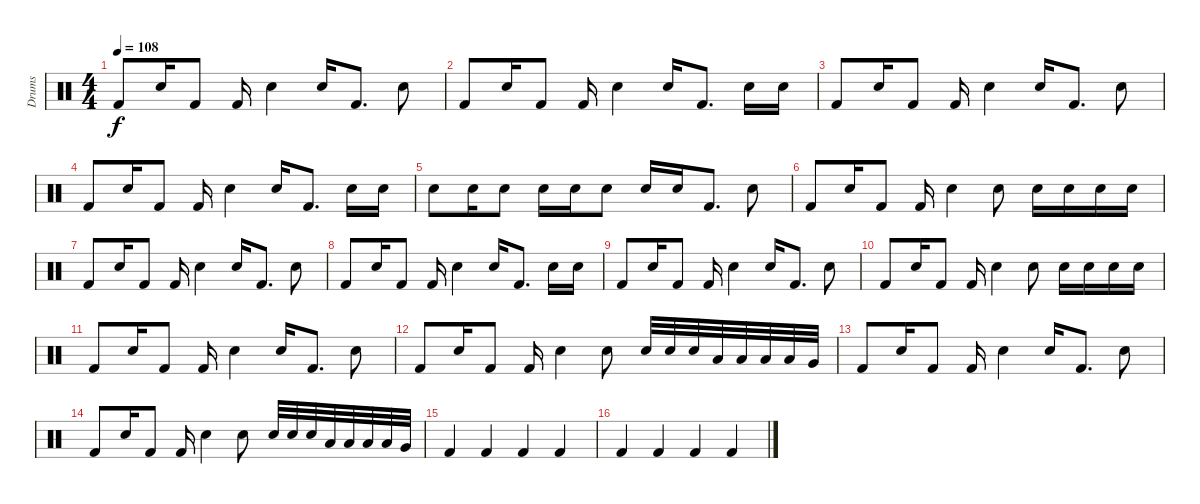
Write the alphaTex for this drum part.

\track ("Drums" "Drums") {instrument percussion}
\staff {score}
\articulation defaults
\ts (4 4)
\tempo 108
\clef neutral
\ks c "Kick (hit) 2".8{dy f} "Electric Snare (hit)".16 "Kick (hit) 2".8 "Kick (hit) 2".16 "Electric Snare (hit)".4 "Electric Snare (hit)".16 "Kick (hit) 2".8{d} "Electric Snare (hit)".8
|
"Kick (hit) 2".8 "Electric Snare (hit)".16 "Kick (hit) 2".8 "Kick (hit) 2".16 "Electric Snare (hit)".4 "Electric Snare (hit)".16 "Kick (hit) 2".8{d} "Electric Snare (hit)".16 "Electric Snare (hit)".16 |
"Kick (hit) 2".8 "Electric Snare (hit)".16 "Kick (hit) 2".8 "Kick (hit) 2".16 "Electric Snare (hit)".4 "Electric Snare (hit)".16 "Kick (hit) 2".8{d} "Electric Snare (hit)".8 |
"Kick (hit) 2".8 "Electric Snare (hit)".16 "Kick (hit) 2".8 "Kick (hit) 2".16 "Electric Snare (hit)".4 "Electric Snare (hit)".16 "Kick (hit) 2".8{d} "Electric Snare (hit)".16 "Electric Snare (hit)".16 |
"Electric Snare (hit)".8 "Electric Snare (hit)".16 "Electric Snare (hit)".8 "Electric Snare (hit)".16 "Electric Snare (hit)".16 "Electric Snare (hit)".8 "Electric Snare (hit)".16 "Electric Snare (hit)".16 "Kick (hit) 2".8{d} "Electric Snare (hit)".8 |
"Kick (hit) 2".8 "Electric Snare (hit)".16 "Kick (hit) 2".8 "Kick (hit) 2".16 "Electric Snare (hit)".4 "Electric Snare (hit)".8 "Electric Snare (hit)".16 "Electric Snare (hit)".16 "Electric Snare (hit)".16 "Electric Snare (hit)".16 |
"Kick (hit) 2".8 "Electric Snare (hit)".16 "Kick (hit) 2".8 "Kick (hit) 2".16 "Electric Snare (hit)".4 "Electric Snare (hit)".16 "Kick (hit) 2".8{d} "Electric Snare (hit)".8 |
"Kick (hit) 2".8 "Electric Snare (hit)".16 "Kick (hit) 2".8 "Kick (hit) 2".16 "Electric Snare (hit)".4 "Electric Snare (hit)".16 "Kick (hit) 2".8{d} "Electric Snare (hit)".16 "Electric Snare (hit)".16 |
"Kick (hit) 2".8 "Electric Snare (hit)".16 "Kick (hit) 2".8 "Kick (hit) 2".16 "Electric Snare (hit)".4 "Electric Snare (hit)".16 "Kick (hit) 2".8{d} "Electric Snare (hit)".8 |
"Kick (hit) 2".8 "Electric Snare (hit)".16 "Kick (hit) 2".8 "Kick (hit) 2".16 "Electric Snare (hit)".4 "Electric Snare (hit)".8 "Electric Snare (hit)".16 "Electric Snare (hit)".16 "Electric Snare (hit)".16 "Electric Snare (hit)".16 |
"Kick (hit) 2".8 "Electric Snare (hit)".16 "Kick (hit) 2".8 "Kick (hit) 2".16 "Electric Snare (hit)".4 "Electric Snare (hit)".16 "Kick (hit) 2".8{d} "Electric Snare (hit)".8 |
"Kick (hit) 2".8 "Electric Snare (hit)".16 "Kick (hit) 2".8 "Kick (hit) 2".16 "Electric Snare (hit)".4 "Electric Snare (hit)".8 "Electric Snare (hit)".32 "Electric Snare (hit)".32 "Electric Snare (hit)".32 "Low Tom (hit)".32 "Low Tom (hit)".32 "Low Tom (hit)".32 "Low Tom (hit)".32 "Very Low Tom (hit)".32 |
"Kick (hit) 2".8 "Electric Snare (hit)".16 "Kick (hit) 2".8 "Kick (hit) 2".16 "Electric Snare (hit)".4 "Electric Snare (hit)".16 "Kick (hit) 2".8{d} "Electric Snare (hit)".8 |
"Kick (hit) 2".8 "Electric Snare (hit)".16 "Kick (hit) 2".8 "Kick (hit) 2".16 "Electric Snare (hit)".4 "Electric Snare (hit)".8 "Electric Snare (hit)".32 "Electric Snare (hit)".32 "Electric Snare (hit)".32 "Low Tom (hit)".32 "Low Tom (hit)".32 "Low Tom (hit)".32 "Low Tom (hit)".32 "Very Low Tom (hit)".32 |
"Kick (hit) 2".4 "Kick (hit) 2".4 "Kick (hit) 2".4 "Kick (hit) 2".4 |
"Kick (hit) 2".4 "Kick (hit) 2".4 "Kick (hit) 2".4 "Kick (hit) 2".4
